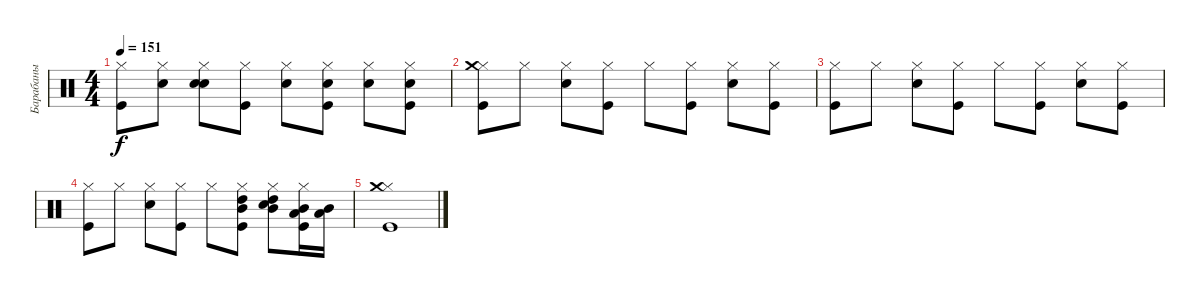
\track ("Барабаны" "Барабаны") {instrument percussion}
\staff {score}
\articulation defaults
\ts (4 4)
\tempo 151
\clef neutral
\ks c
("Kick (hit)" "Hi-Hat (closed)").8{dy f} ("Hi-Hat (closed)" "Hand Clap (hit)").8 ("Snare (hit) 2" "Hi-Hat (closed)" "Hand Clap (hit)").8 ("Kick (hit)" "Hi-Hat (closed)").8 ("Hi-Hat (closed)" "Hand Clap (hit)").8 ("Kick (hit)" "Hi-Hat (closed)" "Hand Clap (hit)").8 ("Snare (hit) 2" "Hi-Hat (closed)").8 ("Kick (hit)" "Hi-Hat (closed)" "Hand Clap (hit)").8 |
("Kick (hit)" "Hi-Hat (closed)" "Crash medium (hit)").8 "Hi-Hat (closed)".8 ("Snare (hit) 2" "Hi-Hat (closed)").8 ("Kick (hit)" "Hi-Hat (closed)").8 "Hi-Hat (closed)".8 ("Kick (hit)" "Hi-Hat (closed)").8 ("Snare (hit) 2" "Hi-Hat (closed)").8 ("Kick (hit)" "Hi-Hat (closed)").8 |
("Kick (hit)" "Hi-Hat (closed)").8 "Hi-Hat (closed)".8 ("Snare (hit) 2" "Hi-Hat (closed)").8 ("Kick (hit)" "Hi-Hat (closed)").8 "Hi-Hat (closed)".8 ("Kick (hit)" "Hi-Hat (closed)").8 ("Snare (hit) 2" "Hi-Hat (closed)").8 ("Kick (hit)" "Hi-Hat (closed)").8 |
("Kick (hit)" "Hi-Hat (closed)").8 "Hi-Hat (closed)".8 ("Snare (hit) 2" "Hi-Hat (closed)").8 ("Kick (hit)" "Hi-Hat (closed)").8 "Hi-Hat (closed)".8 ("Kick (hit)" "Hi-Hat (closed)" "Mid Tom (hit)" "High Tom (hit)").8 ("Snare (hit) 2" "Hi-Hat (closed)" "Mid Tom (hit)" "High Tom (hit)").8 ("Kick (hit)" "Hi-Hat (closed)" "Low Tom (hit)" "Mid Tom (hit)").16 ("Low Tom (hit)" "Mid Tom (hit)").16 |
("Kick (hit)" "Hi-Hat (closed)" "Crash medium (hit)").1
